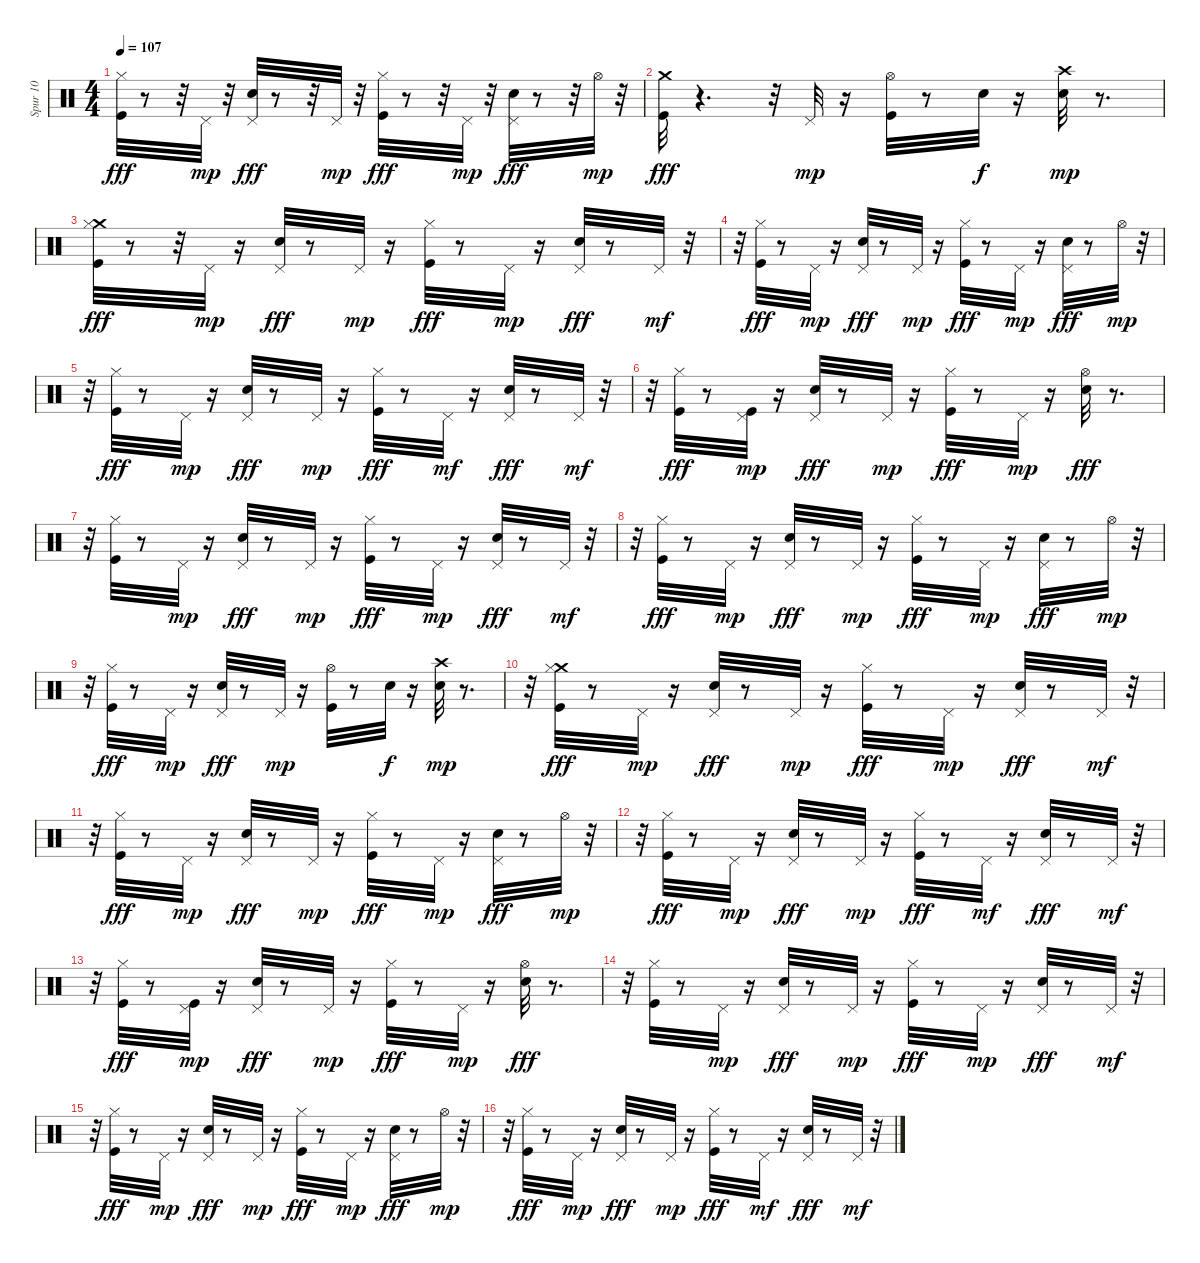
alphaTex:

\track ("Spur 10" "Spur 10") {instrument percussion}
\staff {score}
\articulation defaults
\ts (4 4)
\tempo 107
\clef neutral
\ks c
("Hi-Hat (closed)" "Kick (hit)").32{dy fff} r.8 r.32 "Pedal Hi-Hat (hit)".32{dy mp} r.32 ("Pedal Hi-Hat (hit)" "Snare (hit) 2").32{dy fff} r.8 r.32 "Pedal Hi-Hat (hit)".32{dy mp} r.32 ("Hi-Hat (closed)" "Kick (hit)").32{dy fff} r.8 r.32 "Pedal Hi-Hat (hit)".32{dy mp} r.32 ("Pedal Hi-Hat (hit)" "Snare (hit) 2").32{dy fff} r.8 r.32 "Hi-Hat (open)".32{dy mp} r.32 |
("Crash medium (hit)" "Kick (hit)").32{dy fff} r.4{d} r.32 "Pedal Hi-Hat (hit)".32{dy mp} r.16 ("Kick (hit)" "Hi-Hat (open)").32 r.8 "Snare (hit) 2".32{dy f} r.16 ("Snare (hit) 2" "Crash high (hit)").32{dy mp} r.8{d} |
("Crash medium (hit)" "Hi-Hat (closed)" "Kick (hit)").32{dy fff} r.8 r.32 "Pedal Hi-Hat (hit)".32{dy mp} r.16 ("Pedal Hi-Hat (hit)" "Snare (hit) 2").32{dy fff} r.8 "Pedal Hi-Hat (hit)".32{dy mp} r.16 ("Hi-Hat (closed)" "Kick (hit)").32{dy fff} r.8 "Pedal Hi-Hat (hit)".32{dy mp} r.16 ("Pedal Hi-Hat (hit)" "Snare (hit) 2").32{dy fff} r.8 "Pedal Hi-Hat (hit)".32{dy mf} r.32 |
r.32 ("Hi-Hat (closed)" "Kick (hit)").32{dy fff} r.8 "Pedal Hi-Hat (hit)".32{dy mp} r.16 ("Pedal Hi-Hat (hit)" "Snare (hit) 2").32{dy fff} r.8 "Pedal Hi-Hat (hit)".32{dy mp} r.16 ("Hi-Hat (closed)" "Kick (hit)").32{dy fff} r.8 "Pedal Hi-Hat (hit)".32{dy mp} r.16 ("Pedal Hi-Hat (hit)" "Snare (hit) 2").32{dy fff} r.8 "Hi-Hat (open)".32{dy mp} r.32 |
r.32 ("Hi-Hat (closed)" "Kick (hit)").32{dy fff} r.8 "Pedal Hi-Hat (hit)".32{dy mp} r.16 ("Pedal Hi-Hat (hit)" "Snare (hit) 2").32{dy fff} r.8 "Pedal Hi-Hat (hit)".32{dy mp} r.16 ("Hi-Hat (closed)" "Kick (hit)").32{dy fff} r.8 "Pedal Hi-Hat (hit)".32{dy mf} r.16 ("Pedal Hi-Hat (hit)" "Snare (hit) 2").32{dy fff} r.8 "Pedal Hi-Hat (hit)".32{dy mf} r.32 |
r.32 ("Hi-Hat (closed)" "Kick (hit)").32{dy fff} r.8 ("Pedal Hi-Hat (hit)" "Kick (hit)").32{dy mp} r.16 ("Pedal Hi-Hat (hit)" "Snare (hit) 2").32{dy fff} r.8 "Pedal Hi-Hat (hit)".32{dy mp} r.16 ("Hi-Hat (closed)" "Kick (hit)").32{dy fff} r.8 "Pedal Hi-Hat (hit)".32{dy mp} r.16 ("Hi-Hat (open)" "Snare (hit) 2").32{dy fff} r.8{d} |
r.32 ("Hi-Hat (closed)" "Kick (hit)").32 r.8 "Pedal Hi-Hat (hit)".32{dy mp} r.16 ("Pedal Hi-Hat (hit)" "Snare (hit) 2").32{dy fff} r.8 "Pedal Hi-Hat (hit)".32{dy mp} r.16 ("Hi-Hat (closed)" "Kick (hit)").32{dy fff} r.8 "Pedal Hi-Hat (hit)".32{dy mp} r.16 ("Pedal Hi-Hat (hit)" "Snare (hit) 2").32{dy fff} r.8 "Pedal Hi-Hat (hit)".32{dy mf} r.32 |
r.32 ("Hi-Hat (closed)" "Kick (hit)").32{dy fff} r.8 "Pedal Hi-Hat (hit)".32{dy mp} r.16 ("Pedal Hi-Hat (hit)" "Snare (hit) 2").32{dy fff} r.8 "Pedal Hi-Hat (hit)".32{dy mp} r.16 ("Hi-Hat (closed)" "Kick (hit)").32{dy fff} r.8 "Pedal Hi-Hat (hit)".32{dy mp} r.16 ("Pedal Hi-Hat (hit)" "Snare (hit) 2").32{dy fff} r.8 "Hi-Hat (open)".32{dy mp} r.32 |
r.32 ("Hi-Hat (closed)" "Kick (hit)").32{dy fff} r.8 "Pedal Hi-Hat (hit)".32{dy mp} r.16 ("Pedal Hi-Hat (hit)" "Snare (hit) 2").32{dy fff} r.8 "Pedal Hi-Hat (hit)".32{dy mp} r.16 ("Kick (hit)" "Hi-Hat (open)").32 r.8 "Snare (hit) 2".32{dy f} r.16 ("Snare (hit) 2" "Crash high (hit)").32{dy mp} r.8{d} |
r.32 ("Crash medium (hit)" "Hi-Hat (closed)" "Kick (hit)").32{dy fff} r.8 "Pedal Hi-Hat (hit)".32{dy mp} r.16 ("Pedal Hi-Hat (hit)" "Snare (hit) 2").32{dy fff} r.8 "Pedal Hi-Hat (hit)".32{dy mp} r.16 ("Hi-Hat (closed)" "Kick (hit)").32{dy fff} r.8 "Pedal Hi-Hat (hit)".32{dy mp} r.16 ("Pedal Hi-Hat (hit)" "Snare (hit) 2").32{dy fff} r.8 "Pedal Hi-Hat (hit)".32{dy mf} r.32 |
r.32 ("Hi-Hat (closed)" "Kick (hit)").32{dy fff} r.8 "Pedal Hi-Hat (hit)".32{dy mp} r.16 ("Pedal Hi-Hat (hit)" "Snare (hit) 2").32{dy fff} r.8 "Pedal Hi-Hat (hit)".32{dy mp} r.16 ("Hi-Hat (closed)" "Kick (hit)").32{dy fff} r.8 "Pedal Hi-Hat (hit)".32{dy mp} r.16 ("Pedal Hi-Hat (hit)" "Snare (hit) 2").32{dy fff} r.8 "Hi-Hat (open)".32{dy mp} r.32 |
r.32 ("Hi-Hat (closed)" "Kick (hit)").32{dy fff} r.8 "Pedal Hi-Hat (hit)".32{dy mp} r.16 ("Pedal Hi-Hat (hit)" "Snare (hit) 2").32{dy fff} r.8 "Pedal Hi-Hat (hit)".32{dy mp} r.16 ("Hi-Hat (closed)" "Kick (hit)").32{dy fff} r.8 "Pedal Hi-Hat (hit)".32{dy mf} r.16 ("Pedal Hi-Hat (hit)" "Snare (hit) 2").32{dy fff} r.8 "Pedal Hi-Hat (hit)".32{dy mf} r.32 |
r.32 ("Hi-Hat (closed)" "Kick (hit)").32{dy fff} r.8 ("Pedal Hi-Hat (hit)" "Kick (hit)").32{dy mp} r.16 ("Pedal Hi-Hat (hit)" "Snare (hit) 2").32{dy fff} r.8 "Pedal Hi-Hat (hit)".32{dy mp} r.16 ("Hi-Hat (closed)" "Kick (hit)").32{dy fff} r.8 "Pedal Hi-Hat (hit)".32{dy mp} r.16 ("Hi-Hat (open)" "Snare (hit) 2").32{dy fff} r.8{d} |
r.32 ("Hi-Hat (closed)" "Kick (hit)").32 r.8 "Pedal Hi-Hat (hit)".32{dy mp} r.16 ("Pedal Hi-Hat (hit)" "Snare (hit) 2").32{dy fff} r.8 "Pedal Hi-Hat (hit)".32{dy mp} r.16 ("Hi-Hat (closed)" "Kick (hit)").32{dy fff} r.8 "Pedal Hi-Hat (hit)".32{dy mp} r.16 ("Pedal Hi-Hat (hit)" "Snare (hit) 2").32{dy fff} r.8 "Pedal Hi-Hat (hit)".32{dy mf} r.32 |
r.32 ("Hi-Hat (closed)" "Kick (hit)").32{dy fff} r.8 "Pedal Hi-Hat (hit)".32{dy mp} r.16 ("Pedal Hi-Hat (hit)" "Snare (hit) 2").32{dy fff} r.8 "Pedal Hi-Hat (hit)".32{dy mp} r.16 ("Hi-Hat (closed)" "Kick (hit)").32{dy fff} r.8 "Pedal Hi-Hat (hit)".32{dy mp} r.16 ("Pedal Hi-Hat (hit)" "Snare (hit) 2").32{dy fff} r.8 "Hi-Hat (open)".32{dy mp} r.32 |
r.32 ("Hi-Hat (closed)" "Kick (hit)").32{dy fff} r.8 "Pedal Hi-Hat (hit)".32{dy mp} r.16 ("Pedal Hi-Hat (hit)" "Snare (hit) 2").32{dy fff} r.8 "Pedal Hi-Hat (hit)".32{dy mp} r.16 ("Hi-Hat (closed)" "Kick (hit)").32{dy fff} r.8 "Pedal Hi-Hat (hit)".32{dy mf} r.16 ("Pedal Hi-Hat (hit)" "Snare (hit) 2").32{dy fff} r.8 "Pedal Hi-Hat (hit)".32{dy mf} r.32
